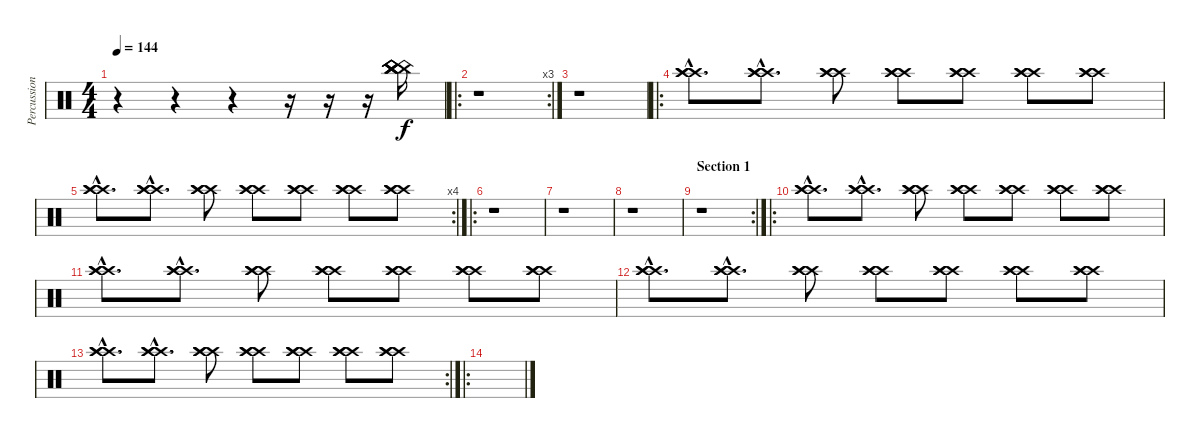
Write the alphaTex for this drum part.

\track ("Percussion 2" "Percussion") {instrument percussion}
\staff {score}
\articulation defaults
\ts (4 4)
\tempo 144
\clef neutral
\ks c
r.4{dy f} r.4 r.4 r.16 r.16 r.16 ("China (hit)" "China (hit)" "China (hit)" "China (hit)" "China (hit)" "China (hit)").16 |
\ro
\rc 3
r.1 |
r.1 |
\ro
("Crash high (hit)"{hac} "Crash high (hit)"{hac} "Crash high (hit)"{hac}).8{d} ("Crash high (hit)"{hac} "Crash high (hit)" "Crash high (hit)").8{d} ("Crash high (hit)" "Crash high (hit)" "Crash high (hit)").8 ("Crash high (hit)" "Crash high (hit)" "Crash high (hit)").8 ("Crash high (hit)" "Crash high (hit)" "Crash high (hit)").8 ("Crash high (hit)" "Crash high (hit)" "Crash high (hit)").8 ("Crash high (hit)" "Crash high (hit)" "Crash high (hit)").8 |
\rc 4
("Crash high (hit)"{hac} "Crash high (hit)"{hac} "Crash high (hit)"{hac}).8{d} ("Crash high (hit)"{hac} "Crash high (hit)"{hac} "Crash high (hit)"{hac}).8{d} ("Crash high (hit)" "Crash high (hit)" "Crash high (hit)").8 ("Crash high (hit)" "Crash high (hit)" "Crash high (hit)").8 ("Crash high (hit)" "Crash high (hit)" "Crash high (hit)").8 ("Crash high (hit)" "Crash high (hit)" "Crash high (hit)").8 ("Crash high (hit)" "Crash high (hit)" "Crash high (hit)").8 |
\ro
r.1 |
r.1 |
r.1 |
\rc 2
\section ("" "Section 1")
r.1 |
\ro
("Crash high (hit)"{hac} "Crash high (hit)"{hac} "Crash high (hit)"{hac}).8{d} ("Crash high (hit)"{hac} "Crash high (hit)" "Crash high (hit)").8{d} ("Crash high (hit)" "Crash high (hit)" "Crash high (hit)").8 ("Crash high (hit)" "Crash high (hit)" "Crash high (hit)").8 ("Crash high (hit)" "Crash high (hit)" "Crash high (hit)").8 ("Crash high (hit)" "Crash high (hit)" "Crash high (hit)").8 ("Crash high (hit)" "Crash high (hit)" "Crash high (hit)").8 |
("Crash high (hit)"{hac} "Crash high (hit)"{hac} "Crash high (hit)"{hac}).8{d} ("Crash high (hit)"{hac} "Crash high (hit)" "Crash high (hit)").8{d} ("Crash high (hit)" "Crash high (hit)" "Crash high (hit)").8 ("Crash high (hit)" "Crash high (hit)" "Crash high (hit)").8 ("Crash high (hit)" "Crash high (hit)" "Crash high (hit)").8 ("Crash high (hit)" "Crash high (hit)" "Crash high (hit)").8 ("Crash high (hit)" "Crash high (hit)" "Crash high (hit)").8 |
("Crash high (hit)"{hac} "Crash high (hit)"{hac} "Crash high (hit)"{hac}).8{d} ("Crash high (hit)"{hac} "Crash high (hit)" "Crash high (hit)").8{d} ("Crash high (hit)" "Crash high (hit)" "Crash high (hit)").8 ("Crash high (hit)" "Crash high (hit)" "Crash high (hit)").8 ("Crash high (hit)" "Crash high (hit)" "Crash high (hit)").8 ("Crash high (hit)" "Crash high (hit)" "Crash high (hit)").8 ("Crash high (hit)" "Crash high (hit)" "Crash high (hit)").8 |
\rc 2
("Crash high (hit)"{hac} "Crash high (hit)"{hac} "Crash high (hit)"{hac}).8{d} ("Crash high (hit)"{hac} "Crash high (hit)" "Crash high (hit)").8{d} ("Crash high (hit)" "Crash high (hit)" "Crash high (hit)").8 ("Crash high (hit)" "Crash high (hit)" "Crash high (hit)").8 ("Crash high (hit)" "Crash high (hit)" "Crash high (hit)").8 ("Crash high (hit)" "Crash high (hit)" "Crash high (hit)").8 ("Crash high (hit)" "Crash high (hit)" "Crash high (hit)").8 |
\ro
